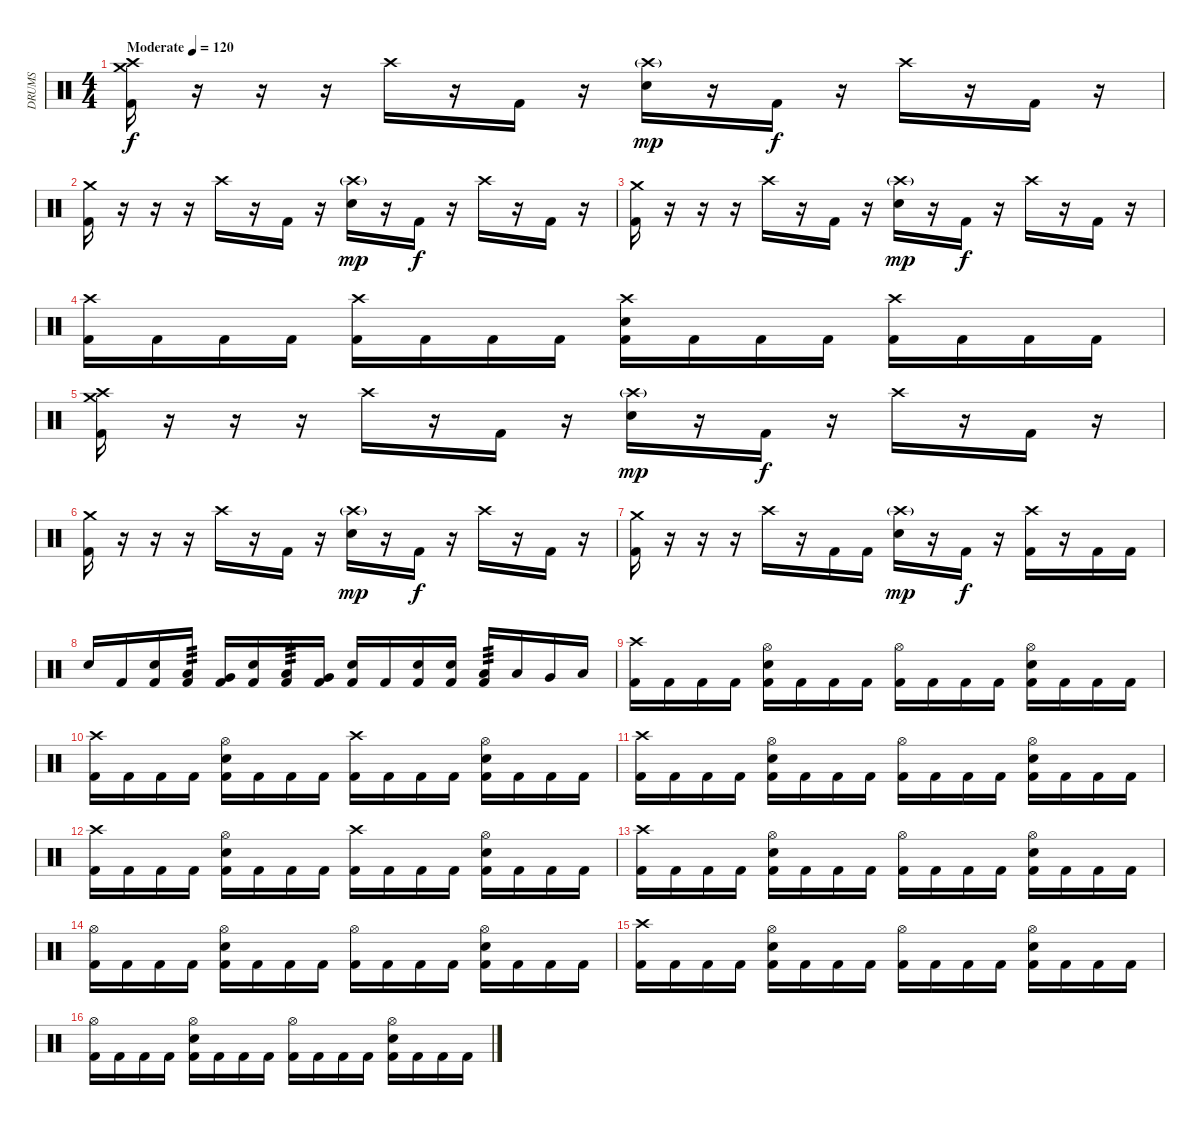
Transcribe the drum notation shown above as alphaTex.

\track ("DRUMS" "DRUMS") {instrument percussion}
\staff {score}
\articulation defaults
\ts (4 4)
\tempo (120 "Moderate")
\clef neutral
\ks c
("Crash high (hit)" "Crash medium (hit)" "Kick (hit) 2").16{dy f} r.16 r.16 r.16 "Crash high (hit)".16 r.16 "Kick (hit) 2".16 r.16 ("Crash high (hit)"{g} "Electric Snare (hit)").16{dy mp} r.16 "Kick (hit) 2".16{dy f} r.16 "Crash high (hit)".16 r.16 "Kick (hit) 2".16 r.16 |
("Crash medium (hit)" "Kick (hit) 2").16 r.16 r.16 r.16 "Crash high (hit)".16 r.16 "Kick (hit) 2".16 r.16 ("Crash high (hit)"{g} "Electric Snare (hit)").16{dy mp} r.16 "Kick (hit) 2".16{dy f} r.16 "Crash high (hit)".16 r.16 "Kick (hit) 2".16 r.16 |
("Crash medium (hit)" "Kick (hit) 2").16 r.16 r.16 r.16 "Crash high (hit)".16 r.16 "Kick (hit) 2".16 r.16 ("Crash high (hit)"{g} "Electric Snare (hit)").16{dy mp} r.16 "Kick (hit) 2".16{dy f} r.16 "Crash high (hit)".16 r.16 "Kick (hit) 2".16 r.16 |
("Crash high (hit)" "Kick (hit) 2").16 "Kick (hit) 2".16 "Kick (hit) 2".16 "Kick (hit) 2".16 ("Crash high (hit)" "Kick (hit) 2").16 "Kick (hit) 2".16 "Kick (hit) 2".16 "Kick (hit) 2".16 ("Crash high (hit)" "Electric Snare (hit)" "Kick (hit) 2").16 "Kick (hit) 2".16 "Kick (hit) 2".16 "Kick (hit) 2".16 ("Crash high (hit)" "Kick (hit) 2").16 "Kick (hit) 2".16 "Kick (hit) 2".16 "Kick (hit) 2".16 |
("Crash high (hit)" "Crash medium (hit)" "Kick (hit) 2").16 r.16 r.16 r.16 "Crash high (hit)".16 r.16 "Kick (hit) 2".16 r.16 ("Crash high (hit)"{g} "Electric Snare (hit)").16{dy mp} r.16 "Kick (hit) 2".16{dy f} r.16 "Crash high (hit)".16 r.16 "Kick (hit) 2".16 r.16 |
("Crash medium (hit)" "Kick (hit) 2").16 r.16 r.16 r.16 "Crash high (hit)".16 r.16 "Kick (hit) 2".16 r.16 ("Crash high (hit)"{g} "Electric Snare (hit)").16{dy mp} r.16 "Kick (hit) 2".16{dy f} r.16 "Crash high (hit)".16 r.16 "Kick (hit) 2".16 r.16 |
("Crash medium (hit)" "Kick (hit) 2").16 r.16 r.16 r.16 "Crash high (hit)".16 r.16 "Kick (hit) 2".16 "Kick (hit) 2".16 ("Crash high (hit)"{g} "Electric Snare (hit)").16{dy mp} r.16 "Kick (hit) 2".16{dy f} r.16 ("Crash high (hit)" "Kick (hit) 2").16 r.16 "Kick (hit) 2".16 "Kick (hit) 2".16 |
"Electric Snare (hit)".16 "Kick (hit) 2".16 ("Electric Snare (hit)" "Kick (hit) 2").16 ("Low Tom (hit)" "Kick (hit) 2").16{tp 3} ("Very Low Tom (hit)" "Kick (hit) 2").16 ("Electric Snare (hit)" "Kick (hit) 2").16 ("Low Tom (hit)" "Kick (hit) 2").16{tp 3} ("Very Low Tom (hit)" "Kick (hit) 2").16 ("Electric Snare (hit)" "Kick (hit) 2").16 "Kick (hit) 2".16 ("Electric Snare (hit)" "Kick (hit) 2").16 ("Electric Snare (hit)" "Kick (hit) 2").16 ("Low Tom (hit)" "Kick (hit) 2").16{tp 3} "Low Tom (hit)".16 "Very Low Tom (hit)".16 "Low Floor Tom (hit)".16 |
("Crash high (hit)" "Kick (hit) 2").16 "Kick (hit) 2".16 "Kick (hit) 2".16 "Kick (hit) 2".16 ("Hi-Hat (open)" "Electric Snare (hit)" "Kick (hit) 2").16 "Kick (hit) 2".16 "Kick (hit) 2".16 "Kick (hit) 2".16 ("Hi-Hat (open)" "Kick (hit) 2").16 "Kick (hit) 2".16 "Kick (hit) 2".16 "Kick (hit) 2".16 ("Hi-Hat (open)" "Electric Snare (hit)" "Kick (hit) 2").16 "Kick (hit) 2".16 "Kick (hit) 2".16 "Kick (hit) 2".16 |
("Crash high (hit)" "Kick (hit) 2").16 "Kick (hit) 2".16 "Kick (hit) 2".16 "Kick (hit) 2".16 ("Hi-Hat (open)" "Electric Snare (hit)" "Kick (hit) 2").16 "Kick (hit) 2".16 "Kick (hit) 2".16 "Kick (hit) 2".16 ("Crash high (hit)" "Kick (hit) 2").16 "Kick (hit) 2".16 "Kick (hit) 2".16 "Kick (hit) 2".16 ("Hi-Hat (open)" "Electric Snare (hit)" "Kick (hit) 2").16 "Kick (hit) 2".16 "Kick (hit) 2".16 "Kick (hit) 2".16 |
("Crash high (hit)" "Kick (hit) 2").16 "Kick (hit) 2".16 "Kick (hit) 2".16 "Kick (hit) 2".16 ("Hi-Hat (open)" "Electric Snare (hit)" "Kick (hit) 2").16 "Kick (hit) 2".16 "Kick (hit) 2".16 "Kick (hit) 2".16 ("Hi-Hat (open)" "Kick (hit) 2").16 "Kick (hit) 2".16 "Kick (hit) 2".16 "Kick (hit) 2".16 ("Hi-Hat (open)" "Electric Snare (hit)" "Kick (hit) 2").16 "Kick (hit) 2".16 "Kick (hit) 2".16 "Kick (hit) 2".16 |
("Crash high (hit)" "Kick (hit) 2").16 "Kick (hit) 2".16 "Kick (hit) 2".16 "Kick (hit) 2".16 ("Hi-Hat (open)" "Electric Snare (hit)" "Kick (hit) 2").16 "Kick (hit) 2".16 "Kick (hit) 2".16 "Kick (hit) 2".16 ("Crash high (hit)" "Kick (hit) 2").16 "Kick (hit) 2".16 "Kick (hit) 2".16 "Kick (hit) 2".16 ("Hi-Hat (open)" "Electric Snare (hit)" "Kick (hit) 2").16 "Kick (hit) 2".16 "Kick (hit) 2".16 "Kick (hit) 2".16 |
("Crash high (hit)" "Kick (hit) 2").16 "Kick (hit) 2".16 "Kick (hit) 2".16 "Kick (hit) 2".16 ("Hi-Hat (open)" "Electric Snare (hit)" "Kick (hit) 2").16 "Kick (hit) 2".16 "Kick (hit) 2".16 "Kick (hit) 2".16 ("Hi-Hat (open)" "Kick (hit) 2").16 "Kick (hit) 2".16 "Kick (hit) 2".16 "Kick (hit) 2".16 ("Hi-Hat (open)" "Electric Snare (hit)" "Kick (hit) 2").16 "Kick (hit) 2".16 "Kick (hit) 2".16 "Kick (hit) 2".16 |
("Hi-Hat (open)" "Kick (hit) 2").16 "Kick (hit) 2".16 "Kick (hit) 2".16 "Kick (hit) 2".16 ("Hi-Hat (open)" "Electric Snare (hit)" "Kick (hit) 2").16 "Kick (hit) 2".16 "Kick (hit) 2".16 "Kick (hit) 2".16 ("Hi-Hat (open)" "Kick (hit) 2").16 "Kick (hit) 2".16 "Kick (hit) 2".16 "Kick (hit) 2".16 ("Hi-Hat (open)" "Electric Snare (hit)" "Kick (hit) 2").16 "Kick (hit) 2".16 "Kick (hit) 2".16 "Kick (hit) 2".16 |
("Crash high (hit)" "Kick (hit) 2").16 "Kick (hit) 2".16 "Kick (hit) 2".16 "Kick (hit) 2".16 ("Hi-Hat (open)" "Electric Snare (hit)" "Kick (hit) 2").16 "Kick (hit) 2".16 "Kick (hit) 2".16 "Kick (hit) 2".16 ("Hi-Hat (open)" "Kick (hit) 2").16 "Kick (hit) 2".16 "Kick (hit) 2".16 "Kick (hit) 2".16 ("Hi-Hat (open)" "Electric Snare (hit)" "Kick (hit) 2").16 "Kick (hit) 2".16 "Kick (hit) 2".16 "Kick (hit) 2".16 |
("Hi-Hat (open)" "Kick (hit) 2").16 "Kick (hit) 2".16 "Kick (hit) 2".16 "Kick (hit) 2".16 ("Hi-Hat (open)" "Electric Snare (hit)" "Kick (hit) 2").16 "Kick (hit) 2".16 "Kick (hit) 2".16 "Kick (hit) 2".16 ("Hi-Hat (open)" "Kick (hit) 2").16 "Kick (hit) 2".16 "Kick (hit) 2".16 "Kick (hit) 2".16 ("Hi-Hat (open)" "Electric Snare (hit)" "Kick (hit) 2").16 "Kick (hit) 2".16 "Kick (hit) 2".16 "Kick (hit) 2".16
